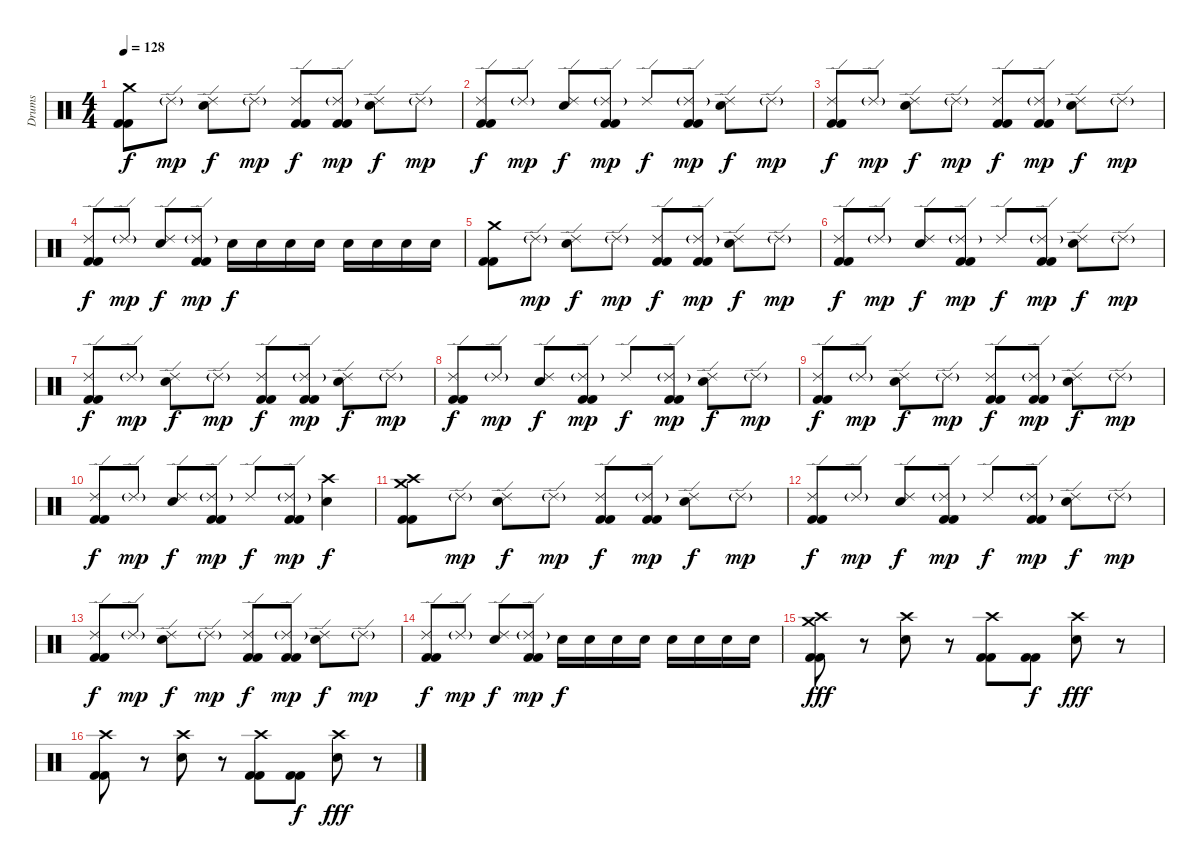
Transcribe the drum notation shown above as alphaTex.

\track ("Drums" "Drums") {instrument percussion}
\staff {score}
\articulation defaults
\ts (4 4)
\tempo 128
\clef neutral
\ks c
("Crash medium (hit)" "Kick (hit) 2" "Kick (hit) 2").8{dy f} "Ride (edge) 2"{g}.8{dy mp} ("Ride (edge) 2" "Electric Snare (hit)").8{dy f} "Ride (edge) 2"{g}.8{dy mp} ("Ride (edge) 2" "Kick (hit) 2" "Kick (hit) 2").8{dy f} ("Ride (edge) 2"{g} "Kick (hit) 2" "Kick (hit) 2").8{dy mp} ("Ride (edge) 2" "Electric Snare (hit)").8{dy f} "Ride (edge) 2"{g}.8{dy mp} |
("Ride (edge) 2" "Kick (hit) 2" "Kick (hit) 2").8{dy f} "Ride (edge) 2"{g}.8{dy mp} ("Ride (edge) 2" "Electric Snare (hit)").8{dy f} ("Ride (edge) 2"{g} "Kick (hit) 2" "Kick (hit) 2").8{dy mp} "Ride (edge) 2".8{dy f} ("Ride (edge) 2"{g} "Kick (hit) 2" "Kick (hit) 2").8{dy mp} ("Ride (edge) 2" "Electric Snare (hit)").8{dy f} "Ride (edge) 2"{g}.8{dy mp} |
("Ride (edge) 2" "Kick (hit) 2" "Kick (hit) 2").8{dy f} "Ride (edge) 2"{g}.8{dy mp} ("Ride (edge) 2" "Electric Snare (hit)").8{dy f} "Ride (edge) 2"{g}.8{dy mp} ("Ride (edge) 2" "Kick (hit) 2" "Kick (hit) 2").8{dy f} ("Ride (edge) 2"{g} "Kick (hit) 2" "Kick (hit) 2").8{dy mp} ("Ride (edge) 2" "Electric Snare (hit)").8{dy f} "Ride (edge) 2"{g}.8{dy mp} |
("Ride (edge) 2" "Kick (hit) 2" "Kick (hit) 2").8{dy f} "Ride (edge) 2"{g}.8{dy mp} ("Ride (edge) 2" "Electric Snare (hit)").8{dy f} ("Ride (edge) 2"{g} "Kick (hit) 2" "Kick (hit) 2").8{dy mp} "Electric Snare (hit)".16{dy f} "Electric Snare (hit)".16 "Electric Snare (hit)".16 "Electric Snare (hit)".16 "Electric Snare (hit)".16 "Electric Snare (hit)".16 "Electric Snare (hit)".16 "Electric Snare (hit)".16 |
("Crash medium (hit)" "Kick (hit) 2" "Kick (hit) 2").8 "Ride (edge) 2"{g}.8{dy mp} ("Ride (edge) 2" "Electric Snare (hit)").8{dy f} "Ride (edge) 2"{g}.8{dy mp} ("Ride (edge) 2" "Kick (hit) 2" "Kick (hit) 2").8{dy f} ("Ride (edge) 2"{g} "Kick (hit) 2" "Kick (hit) 2").8{dy mp} ("Ride (edge) 2" "Electric Snare (hit)").8{dy f} "Ride (edge) 2"{g}.8{dy mp} |
("Ride (edge) 2" "Kick (hit) 2" "Kick (hit) 2").8{dy f} "Ride (edge) 2"{g}.8{dy mp} ("Ride (edge) 2" "Electric Snare (hit)").8{dy f} ("Ride (edge) 2"{g} "Kick (hit) 2" "Kick (hit) 2").8{dy mp} "Ride (edge) 2".8{dy f} ("Ride (edge) 2"{g} "Kick (hit) 2" "Kick (hit) 2").8{dy mp} ("Ride (edge) 2" "Electric Snare (hit)").8{dy f} "Ride (edge) 2"{g}.8{dy mp} |
("Ride (edge) 2" "Kick (hit) 2" "Kick (hit) 2").8{dy f} "Ride (edge) 2"{g}.8{dy mp} ("Ride (edge) 2" "Electric Snare (hit)").8{dy f} "Ride (edge) 2"{g}.8{dy mp} ("Ride (edge) 2" "Kick (hit) 2" "Kick (hit) 2").8{dy f} ("Ride (edge) 2"{g} "Kick (hit) 2" "Kick (hit) 2").8{dy mp} ("Ride (edge) 2" "Electric Snare (hit)").8{dy f} "Ride (edge) 2"{g}.8{dy mp} |
("Ride (edge) 2" "Kick (hit) 2" "Kick (hit) 2").8{dy f} "Ride (edge) 2"{g}.8{dy mp} ("Ride (edge) 2" "Electric Snare (hit)").8{dy f} ("Ride (edge) 2"{g} "Kick (hit) 2" "Kick (hit) 2").8{dy mp} "Ride (edge) 2".8{dy f} ("Ride (edge) 2"{g} "Kick (hit) 2" "Kick (hit) 2").8{dy mp} ("Ride (edge) 2" "Electric Snare (hit)").8{dy f} "Ride (edge) 2"{g}.8{dy mp} |
("Ride (edge) 2" "Kick (hit) 2" "Kick (hit) 2").8{dy f} "Ride (edge) 2"{g}.8{dy mp} ("Ride (edge) 2" "Electric Snare (hit)").8{dy f} "Ride (edge) 2"{g}.8{dy mp} ("Ride (edge) 2" "Kick (hit) 2" "Kick (hit) 2").8{dy f} ("Ride (edge) 2"{g} "Kick (hit) 2" "Kick (hit) 2").8{dy mp} ("Ride (edge) 2" "Electric Snare (hit)").8{dy f} "Ride (edge) 2"{g}.8{dy mp} |
("Ride (edge) 2" "Kick (hit) 2" "Kick (hit) 2").8{dy f} "Ride (edge) 2"{g}.8{dy mp} ("Ride (edge) 2" "Electric Snare (hit)").8{dy f} ("Ride (edge) 2"{g} "Kick (hit) 2" "Kick (hit) 2").8{dy mp} "Ride (edge) 2".8{dy f} ("Ride (edge) 2"{g} "Kick (hit) 2" "Kick (hit) 2").8{dy mp} ("Crash high (hit)" "Electric Snare (hit)").4{dy f} |
("Crash medium (hit)" "Crash high (hit)" "Kick (hit) 2" "Kick (hit) 2").8 "Ride (edge) 2"{g}.8{dy mp} ("Ride (edge) 2" "Electric Snare (hit)").8{dy f} "Ride (edge) 2"{g}.8{dy mp} ("Ride (edge) 2" "Kick (hit) 2" "Kick (hit) 2").8{dy f} ("Ride (edge) 2"{g} "Kick (hit) 2" "Kick (hit) 2").8{dy mp} ("Ride (edge) 2" "Electric Snare (hit)").8{dy f} "Ride (edge) 2"{g}.8{dy mp} |
("Ride (edge) 2" "Kick (hit) 2" "Kick (hit) 2").8{dy f} "Ride (edge) 2"{g}.8{dy mp} ("Ride (edge) 2" "Electric Snare (hit)").8{dy f} ("Ride (edge) 2"{g} "Kick (hit) 2" "Kick (hit) 2").8{dy mp} "Ride (edge) 2".8{dy f} ("Ride (edge) 2"{g} "Kick (hit) 2" "Kick (hit) 2").8{dy mp} ("Ride (edge) 2" "Electric Snare (hit)").8{dy f} "Ride (edge) 2"{g}.8{dy mp} |
("Ride (edge) 2" "Kick (hit) 2" "Kick (hit) 2").8{dy f} "Ride (edge) 2"{g}.8{dy mp} ("Ride (edge) 2" "Electric Snare (hit)").8{dy f} "Ride (edge) 2"{g}.8{dy mp} ("Ride (edge) 2" "Kick (hit) 2" "Kick (hit) 2").8{dy f} ("Ride (edge) 2"{g} "Kick (hit) 2" "Kick (hit) 2").8{dy mp} ("Ride (edge) 2" "Electric Snare (hit)").8{dy f} "Ride (edge) 2"{g}.8{dy mp} |
("Ride (edge) 2" "Kick (hit) 2" "Kick (hit) 2").8{dy f} "Ride (edge) 2"{g}.8{dy mp} ("Ride (edge) 2" "Electric Snare (hit)").8{dy f} ("Ride (edge) 2"{g} "Kick (hit) 2" "Kick (hit) 2").8{dy mp} "Electric Snare (hit)".16{dy f} "Electric Snare (hit)".16 "Electric Snare (hit)".16 "Electric Snare (hit)".16 "Electric Snare (hit)".16 "Electric Snare (hit)".16 "Electric Snare (hit)".16 "Electric Snare (hit)".16 |
("Crash high (hit)" "Crash medium (hit)" "Kick (hit) 2" "Kick (hit) 2").8{dy fff} r.8 ("Crash high (hit)" "Electric Snare (hit)").8 r.8 ("Crash high (hit)" "Kick (hit) 2" "Kick (hit) 2").8 ("Kick (hit) 2" "Kick (hit) 2").8{dy f} ("Crash high (hit)" "Electric Snare (hit)").8{dy fff} r.8 |
("Crash high (hit)" "Kick (hit) 2" "Kick (hit) 2").8 r.8 ("Crash high (hit)" "Electric Snare (hit)").8 r.8 ("Crash high (hit)" "Kick (hit) 2" "Kick (hit) 2").8 ("Kick (hit) 2" "Kick (hit) 2").8{dy f} ("Crash high (hit)" "Electric Snare (hit)").8{dy fff} r.8
